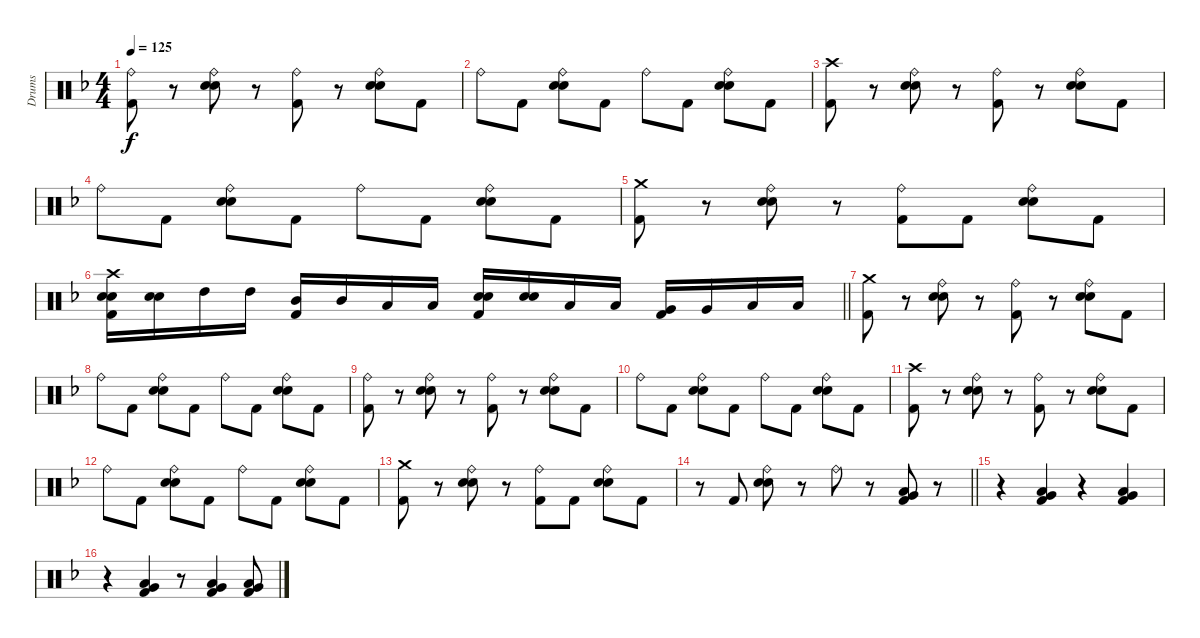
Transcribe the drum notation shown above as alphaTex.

\track ("Drums" "Drums") {instrument percussion}
\staff {score}
\articulation defaults
\ts (4 4)
\tempo 125
\clef neutral
\ks f
("Ride (bell)" "Kick (hit) 2").8{dy f} r.8 ("Ride (bell)" "Electric Snare (hit)" "Snare (hit) 2").8 r.8 ("Ride (bell)" "Kick (hit) 2").8 r.8 ("Ride (bell)" "Electric Snare (hit)" "Snare (hit) 2").8 "Kick (hit) 2".8 |
"Ride (bell)".8 "Kick (hit) 2".8 ("Ride (bell)" "Electric Snare (hit)" "Snare (hit) 2").8 "Kick (hit) 2".8 "Ride (bell)".8 "Kick (hit) 2".8 ("Ride (bell)" "Electric Snare (hit)" "Snare (hit) 2").8 "Kick (hit) 2".8 |
("Crash high (hit)" "Kick (hit) 2").8 r.8 ("Ride (bell)" "Electric Snare (hit)" "Snare (hit) 2").8 r.8 ("Ride (bell)" "Kick (hit) 2").8 r.8 ("Ride (bell)" "Electric Snare (hit)" "Snare (hit) 2").8 "Kick (hit) 2".8 |
"Ride (bell)".8 "Kick (hit) 2".8 ("Ride (bell)" "Electric Snare (hit)" "Snare (hit) 2").8 "Kick (hit) 2".8 "Ride (bell)".8 "Kick (hit) 2".8 ("Ride (bell)" "Electric Snare (hit)" "Snare (hit) 2").8 "Kick (hit) 2".8 |
("Crash medium (hit)" "Kick (hit) 2").8 r.8 ("Ride (bell)" "Electric Snare (hit)" "Snare (hit) 2").8 r.8 ("Ride (bell)" "Kick (hit) 2").8 "Kick (hit) 2".8 ("Ride (bell)" "Electric Snare (hit)" "Snare (hit) 2").8 "Kick (hit) 2".8 |
\barLineRight lightlight
("Crash high (hit)" "Electric Snare (hit)" "Snare (hit) 2" "Kick (hit) 2").16 ("Electric Snare (hit)" "Snare (hit) 2").16 "High Tom (hit)".16 "High Tom (hit)".16 ("Mid Tom (hit)" "Kick (hit) 2").16 "Mid Tom (hit)".16 "Low Tom (hit)".16 "Low Tom (hit)".16 ("Electric Snare (hit)" "Snare (hit) 2" "Kick (hit) 2").16 ("Electric Snare (hit)" "Snare (hit) 2").16 "Low Tom (hit)".16 "Low Tom (hit)".16 ("Very Low Tom (hit)" "Kick (hit) 2").16 "Very Low Tom (hit)".16 "Low Floor Tom (hit)".16 "Low Floor Tom (hit)".16 |
("Crash medium (hit)" "Kick (hit) 2").8 r.8 ("Ride (bell)" "Electric Snare (hit)" "Snare (hit) 2").8 r.8 ("Ride (bell)" "Kick (hit) 2").8 r.8 ("Ride (bell)" "Electric Snare (hit)" "Snare (hit) 2").8 "Kick (hit) 2".8 |
"Ride (bell)".8 "Kick (hit) 2".8 ("Ride (bell)" "Electric Snare (hit)" "Snare (hit) 2").8 "Kick (hit) 2".8 "Ride (bell)".8 "Kick (hit) 2".8 ("Ride (bell)" "Electric Snare (hit)" "Snare (hit) 2").8 "Kick (hit) 2".8 |
("Ride (bell)" "Kick (hit) 2").8 r.8 ("Ride (bell)" "Electric Snare (hit)" "Snare (hit) 2").8 r.8 ("Ride (bell)" "Kick (hit) 2").8 r.8 ("Ride (bell)" "Electric Snare (hit)" "Snare (hit) 2").8 "Kick (hit) 2".8 |
"Ride (bell)".8 "Kick (hit) 2".8 ("Ride (bell)" "Electric Snare (hit)" "Snare (hit) 2").8 "Kick (hit) 2".8 "Ride (bell)".8 "Kick (hit) 2".8 ("Ride (bell)" "Electric Snare (hit)" "Snare (hit) 2").8 "Kick (hit) 2".8 |
("Crash high (hit)" "Kick (hit) 2").8 r.8 ("Ride (bell)" "Electric Snare (hit)" "Snare (hit) 2").8 r.8 ("Ride (bell)" "Kick (hit) 2").8 r.8 ("Ride (bell)" "Electric Snare (hit)" "Snare (hit) 2").8 "Kick (hit) 2".8 |
"Ride (bell)".8 "Kick (hit) 2".8 ("Ride (bell)" "Electric Snare (hit)" "Snare (hit) 2").8 "Kick (hit) 2".8 "Ride (bell)".8 "Kick (hit) 2".8 ("Ride (bell)" "Electric Snare (hit)" "Snare (hit) 2").8 "Kick (hit) 2".8 |
("Crash medium (hit)" "Kick (hit) 2").8 r.8 ("Ride (bell)" "Electric Snare (hit)" "Snare (hit) 2").8 r.8 ("Ride (bell)" "Kick (hit) 2").8 "Kick (hit) 2".8 ("Ride (bell)" "Electric Snare (hit)" "Snare (hit) 2").8 "Kick (hit) 2".8 |
\barLineRight lightlight
r.8 "Kick (hit) 2".8 ("Ride (bell)" "Electric Snare (hit)" "Snare (hit) 2").8 r.8 "Ride (bell)".8 r.8 ("Very Low Tom (hit)" "Low Floor Tom (hit)" "Kick (hit) 2").8 r.8 |
r.4 ("Very Low Tom (hit)" "Low Floor Tom (hit)" "Kick (hit) 2").4 r.4 ("Very Low Tom (hit)" "Low Floor Tom (hit)" "Kick (hit) 2").4 |
r.4 ("Very Low Tom (hit)" "Low Floor Tom (hit)" "Kick (hit) 2").4 r.8 ("Very Low Tom (hit)" "Low Floor Tom (hit)" "Kick (hit) 2").4 ("Very Low Tom (hit)" "Low Floor Tom (hit)" "Kick (hit) 2").8
